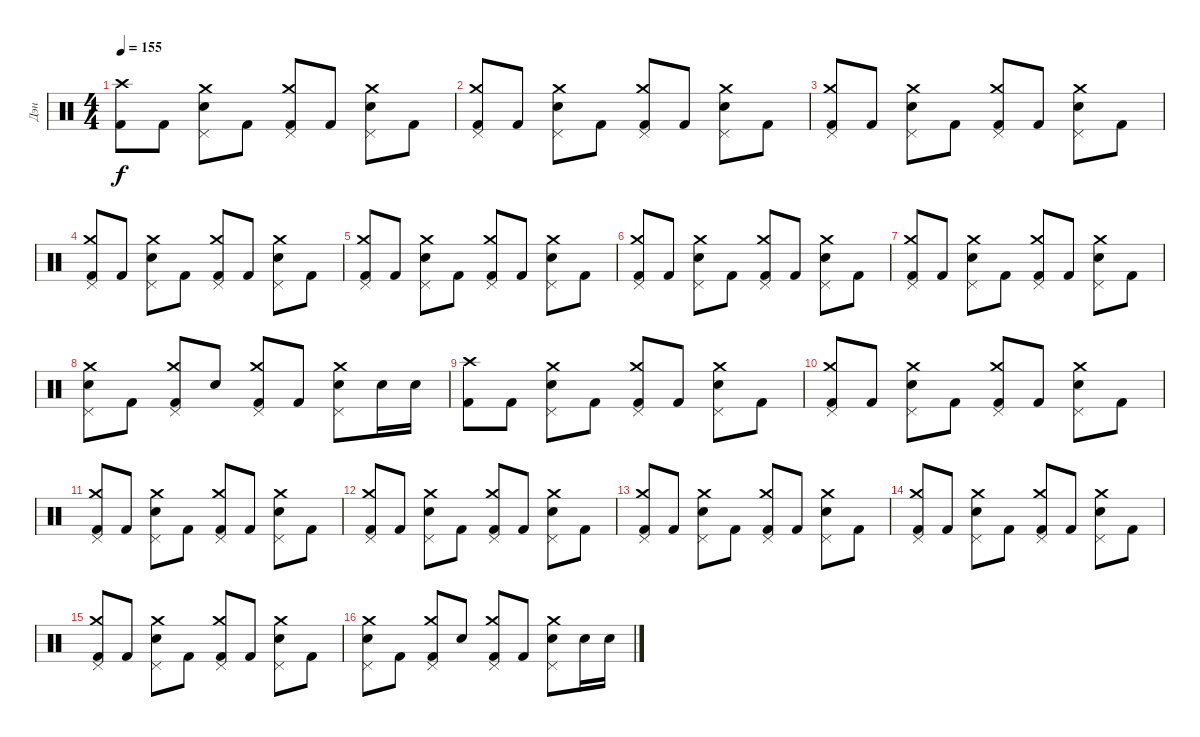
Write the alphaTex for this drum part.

\track ("Дэн" "Дэн") {instrument percussion}
\staff {score}
\articulation defaults
\ts (4 4)
\tempo 155
\clef neutral
\ks c
("Crash high (hit)" "Kick (hit) 2").8{dy f} "Kick (hit) 2".8 ("Crash medium (hit)" "Pedal Hi-Hat (hit)" "Snare (hit) 2").8 "Kick (hit) 2".8 ("Crash medium (hit)" "Pedal Hi-Hat (hit)" "Kick (hit) 2").8 "Kick (hit) 2".8 ("Crash medium (hit)" "Pedal Hi-Hat (hit)" "Snare (hit) 2").8 "Kick (hit) 2".8 |
("Crash medium (hit)" "Pedal Hi-Hat (hit)" "Kick (hit) 2").8 "Kick (hit) 2".8 ("Crash medium (hit)" "Pedal Hi-Hat (hit)" "Snare (hit) 2").8 "Kick (hit) 2".8 ("Crash medium (hit)" "Pedal Hi-Hat (hit)" "Kick (hit) 2").8 "Kick (hit) 2".8 ("Crash medium (hit)" "Pedal Hi-Hat (hit)" "Snare (hit) 2").8 "Kick (hit) 2".8 |
("Crash medium (hit)" "Pedal Hi-Hat (hit)" "Kick (hit) 2").8 "Kick (hit) 2".8 ("Crash medium (hit)" "Pedal Hi-Hat (hit)" "Snare (hit) 2").8 "Kick (hit) 2".8 ("Crash medium (hit)" "Pedal Hi-Hat (hit)" "Kick (hit) 2").8 "Kick (hit) 2".8 ("Crash medium (hit)" "Pedal Hi-Hat (hit)" "Snare (hit) 2").8 "Kick (hit) 2".8 |
("Crash medium (hit)" "Pedal Hi-Hat (hit)" "Kick (hit) 2").8 "Kick (hit) 2".8 ("Crash medium (hit)" "Pedal Hi-Hat (hit)" "Snare (hit) 2").8 "Kick (hit) 2".8 ("Crash medium (hit)" "Pedal Hi-Hat (hit)" "Kick (hit) 2").8 "Kick (hit) 2".8 ("Crash medium (hit)" "Pedal Hi-Hat (hit)" "Snare (hit) 2").8 "Kick (hit) 2".8 |
("Crash medium (hit)" "Pedal Hi-Hat (hit)" "Kick (hit) 2").8 "Kick (hit) 2".8 ("Crash medium (hit)" "Pedal Hi-Hat (hit)" "Snare (hit) 2").8 "Kick (hit) 2".8 ("Crash medium (hit)" "Pedal Hi-Hat (hit)" "Kick (hit) 2").8 "Kick (hit) 2".8 ("Crash medium (hit)" "Pedal Hi-Hat (hit)" "Snare (hit) 2").8 "Kick (hit) 2".8 |
("Crash medium (hit)" "Pedal Hi-Hat (hit)" "Kick (hit) 2").8 "Kick (hit) 2".8 ("Crash medium (hit)" "Pedal Hi-Hat (hit)" "Snare (hit) 2").8 "Kick (hit) 2".8 ("Crash medium (hit)" "Pedal Hi-Hat (hit)" "Kick (hit) 2").8 "Kick (hit) 2".8 ("Crash medium (hit)" "Pedal Hi-Hat (hit)" "Snare (hit) 2").8 "Kick (hit) 2".8 |
("Crash medium (hit)" "Pedal Hi-Hat (hit)" "Kick (hit) 2").8 "Kick (hit) 2".8 ("Crash medium (hit)" "Pedal Hi-Hat (hit)" "Snare (hit) 2").8 "Kick (hit) 2".8 ("Crash medium (hit)" "Pedal Hi-Hat (hit)" "Kick (hit) 2").8 "Kick (hit) 2".8 ("Crash medium (hit)" "Pedal Hi-Hat (hit)" "Snare (hit) 2").8 "Kick (hit) 2".8 |
("Crash medium (hit)" "Pedal Hi-Hat (hit)" "Snare (hit) 2").8 "Kick (hit) 2".8 ("Crash medium (hit)" "Pedal Hi-Hat (hit)" "Kick (hit) 2").8 "Snare (hit) 2".8 ("Crash medium (hit)" "Pedal Hi-Hat (hit)" "Kick (hit) 2").8 "Kick (hit) 2".8 ("Crash medium (hit)" "Pedal Hi-Hat (hit)" "Snare (hit) 2").8 "Snare (hit) 2".16 "Snare (hit) 2".16 |
("Crash high (hit)" "Kick (hit) 2").8 "Kick (hit) 2".8 ("Crash medium (hit)" "Pedal Hi-Hat (hit)" "Snare (hit) 2").8 "Kick (hit) 2".8 ("Crash medium (hit)" "Pedal Hi-Hat (hit)" "Kick (hit) 2").8 "Kick (hit) 2".8 ("Crash medium (hit)" "Pedal Hi-Hat (hit)" "Snare (hit) 2").8 "Kick (hit) 2".8 |
("Crash medium (hit)" "Pedal Hi-Hat (hit)" "Kick (hit) 2").8 "Kick (hit) 2".8 ("Crash medium (hit)" "Pedal Hi-Hat (hit)" "Snare (hit) 2").8 "Kick (hit) 2".8 ("Crash medium (hit)" "Pedal Hi-Hat (hit)" "Kick (hit) 2").8 "Kick (hit) 2".8 ("Crash medium (hit)" "Pedal Hi-Hat (hit)" "Snare (hit) 2").8 "Kick (hit) 2".8 |
("Crash medium (hit)" "Pedal Hi-Hat (hit)" "Kick (hit) 2").8 "Kick (hit) 2".8 ("Crash medium (hit)" "Pedal Hi-Hat (hit)" "Snare (hit) 2").8 "Kick (hit) 2".8 ("Crash medium (hit)" "Pedal Hi-Hat (hit)" "Kick (hit) 2").8 "Kick (hit) 2".8 ("Crash medium (hit)" "Pedal Hi-Hat (hit)" "Snare (hit) 2").8 "Kick (hit) 2".8 |
("Crash medium (hit)" "Pedal Hi-Hat (hit)" "Kick (hit) 2").8 "Kick (hit) 2".8 ("Crash medium (hit)" "Pedal Hi-Hat (hit)" "Snare (hit) 2").8 "Kick (hit) 2".8 ("Crash medium (hit)" "Pedal Hi-Hat (hit)" "Kick (hit) 2").8 "Kick (hit) 2".8 ("Crash medium (hit)" "Pedal Hi-Hat (hit)" "Snare (hit) 2").8 "Kick (hit) 2".8 |
("Crash medium (hit)" "Pedal Hi-Hat (hit)" "Kick (hit) 2").8 "Kick (hit) 2".8 ("Crash medium (hit)" "Pedal Hi-Hat (hit)" "Snare (hit) 2").8 "Kick (hit) 2".8 ("Crash medium (hit)" "Pedal Hi-Hat (hit)" "Kick (hit) 2").8 "Kick (hit) 2".8 ("Crash medium (hit)" "Pedal Hi-Hat (hit)" "Snare (hit) 2").8 "Kick (hit) 2".8 |
("Crash medium (hit)" "Pedal Hi-Hat (hit)" "Kick (hit) 2").8 "Kick (hit) 2".8 ("Crash medium (hit)" "Pedal Hi-Hat (hit)" "Snare (hit) 2").8 "Kick (hit) 2".8 ("Crash medium (hit)" "Pedal Hi-Hat (hit)" "Kick (hit) 2").8 "Kick (hit) 2".8 ("Crash medium (hit)" "Pedal Hi-Hat (hit)" "Snare (hit) 2").8 "Kick (hit) 2".8 |
("Crash medium (hit)" "Pedal Hi-Hat (hit)" "Kick (hit) 2").8 "Kick (hit) 2".8 ("Crash medium (hit)" "Pedal Hi-Hat (hit)" "Snare (hit) 2").8 "Kick (hit) 2".8 ("Crash medium (hit)" "Pedal Hi-Hat (hit)" "Kick (hit) 2").8 "Kick (hit) 2".8 ("Crash medium (hit)" "Pedal Hi-Hat (hit)" "Snare (hit) 2").8 "Kick (hit) 2".8 |
("Crash medium (hit)" "Pedal Hi-Hat (hit)" "Snare (hit) 2").8 "Kick (hit) 2".8 ("Crash medium (hit)" "Pedal Hi-Hat (hit)" "Kick (hit) 2").8 "Snare (hit) 2".8 ("Crash medium (hit)" "Pedal Hi-Hat (hit)" "Kick (hit) 2").8 "Kick (hit) 2".8 ("Crash medium (hit)" "Pedal Hi-Hat (hit)" "Snare (hit) 2").8 "Snare (hit) 2".16 "Snare (hit) 2".16
